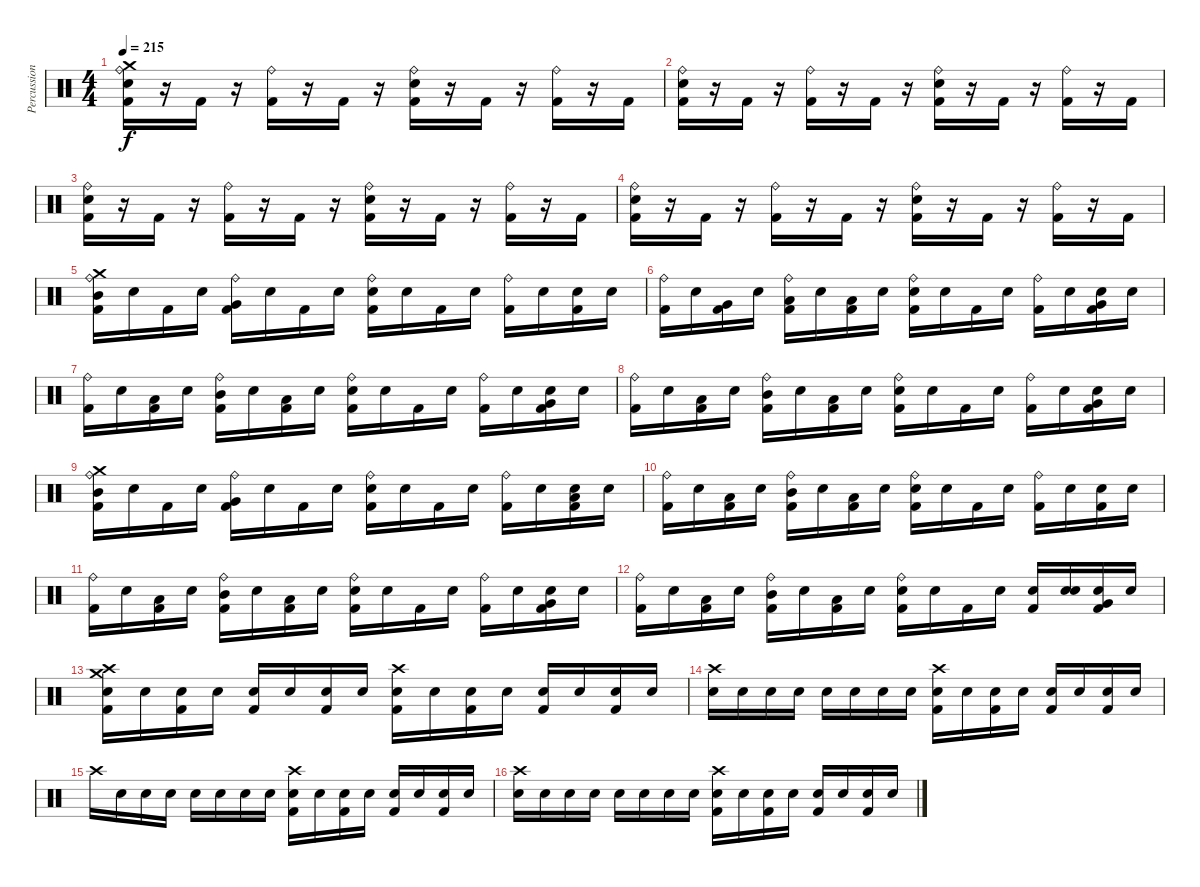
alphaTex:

\track ("Percussion" "Percussion") {instrument percussion}
\staff {score}
\articulation defaults
\ts (4 4)
\tempo 215
\clef neutral
\ks c
("Crash medium (hit)" "Ride (bell)" "Snare (hit) 2" "Kick (hit) 2").16{dy f} r.16 "Kick (hit) 2".16 r.16 ("Ride (bell)" "Kick (hit) 2").16 r.16 "Kick (hit) 2".16 r.16 ("Ride (bell)" "Snare (hit) 2" "Kick (hit) 2").16 r.16 "Kick (hit) 2".16 r.16 ("Ride (bell)" "Kick (hit) 2").16 r.16 "Kick (hit) 2".16 |
("Ride (bell)" "Snare (hit) 2" "Kick (hit) 2").16 r.16 "Kick (hit) 2".16 r.16 ("Ride (bell)" "Kick (hit) 2").16 r.16 "Kick (hit) 2".16 r.16 ("Ride (bell)" "Snare (hit) 2" "Kick (hit) 2").16 r.16 "Kick (hit) 2".16 r.16 ("Ride (bell)" "Kick (hit) 2").16 r.16 "Kick (hit) 2".16 |
("Ride (bell)" "Snare (hit) 2" "Kick (hit) 2").16 r.16 "Kick (hit) 2".16 r.16 ("Ride (bell)" "Kick (hit) 2").16 r.16 "Kick (hit) 2".16 r.16 ("Ride (bell)" "Snare (hit) 2" "Kick (hit) 2").16 r.16 "Kick (hit) 2".16 r.16 ("Ride (bell)" "Kick (hit) 2").16 r.16 "Kick (hit) 2".16 |
("Ride (bell)" "Snare (hit) 2" "Kick (hit) 2").16 r.16 "Kick (hit) 2".16 r.16 ("Ride (bell)" "Kick (hit) 2").16 r.16 "Kick (hit) 2".16 r.16 ("Ride (bell)" "Snare (hit) 2" "Kick (hit) 2").16 r.16 "Kick (hit) 2".16 r.16 ("Ride (bell)" "Kick (hit) 2").16 r.16 "Kick (hit) 2".16 |
("Crash medium (hit)" "Mid Tom (hit)" "Ride (bell)" "Kick (hit) 2").16 "Snare (hit)".16 "Kick (hit) 2".16 "Snare (hit)".16 ("Very Low Tom (hit)" "Ride (bell)" "Kick (hit) 2").16 "Snare (hit)".16 "Kick (hit) 2".16 "Snare (hit)".16 ("Ride (bell)" "Snare (hit) 2" "Kick (hit) 2").16 "Snare (hit)".16 "Kick (hit) 2".16 "Snare (hit)".16 ("Ride (bell)" "Kick (hit) 2").16 "Snare (hit)".16 ("Snare (hit) 2" "Kick (hit) 2").16 "Snare (hit)".16 |
("Ride (bell)" "Kick (hit) 2").16 "Snare (hit)".16 ("Very Low Tom (hit)" "Kick (hit) 2").16 "Snare (hit)".16 ("Low Tom (hit)" "Ride (bell)" "Kick (hit) 2").16 "Snare (hit)".16 ("Low Floor Tom (hit)" "Kick (hit) 2").16 "Snare (hit)".16 ("Ride (bell)" "Snare (hit) 2" "Kick (hit) 2").16 "Snare (hit)".16 "Kick (hit) 2".16 "Snare (hit)".16 ("Ride (bell)" "Kick (hit) 2").16 "Snare (hit)".16 ("Very Low Tom (hit)" "Snare (hit) 2" "Kick (hit) 2").16 "Snare (hit)".16 |
("Ride (bell)" "Kick (hit) 2").16 "Snare (hit)".16 ("Low Tom (hit)" "Kick (hit) 2").16 "Snare (hit)".16 ("Ride (bell)" "Mid Tom (hit)" "Kick (hit) 2").16 "Snare (hit)".16 ("Low Floor Tom (hit)" "Kick (hit) 2").16 "Snare (hit)".16 ("Ride (bell)" "Snare (hit) 2" "Kick (hit) 2").16 "Snare (hit)".16 "Kick (hit) 2".16 "Snare (hit)".16 ("Ride (bell)" "Kick (hit) 2").16 "Snare (hit)".16 ("Snare (hit) 2" "Very Low Tom (hit)" "Kick (hit) 2").16 "Snare (hit)".16 |
("Ride (bell)" "Kick (hit) 2").16 "Snare (hit)".16 ("Low Tom (hit)" "Kick (hit) 2").16 "Snare (hit)".16 ("Ride (bell)" "Mid Tom (hit)" "Kick (hit) 2").16 "Snare (hit)".16 ("Low Floor Tom (hit)" "Kick (hit) 2").16 "Snare (hit)".16 ("Ride (bell)" "Snare (hit) 2" "Kick (hit) 2").16 "Snare (hit)".16 "Kick (hit) 2".16 "Snare (hit)".16 ("Ride (bell)" "Kick (hit) 2").16 "Snare (hit)".16 ("Snare (hit) 2" "Very Low Tom (hit)" "Kick (hit) 2").16 "Snare (hit)".16 |
("Crash medium (hit)" "Mid Tom (hit)" "Ride (bell)" "Kick (hit) 2").16 "Snare (hit)".16 "Kick (hit) 2".16 "Snare (hit)".16 ("Very Low Tom (hit)" "Ride (bell)" "Kick (hit) 2").16 "Snare (hit)".16 "Kick (hit) 2".16 "Snare (hit)".16 ("Ride (bell)" "Snare (hit) 2" "Kick (hit) 2").16 "Snare (hit)".16 "Kick (hit) 2".16 "Snare (hit)".16 ("Ride (bell)" "Kick (hit) 2").16 "Snare (hit)".16 ("Low Tom (hit)" "Snare (hit) 2" "Kick (hit) 2").16 "Snare (hit)".16 |
("Ride (bell)" "Kick (hit) 2").16 "Snare (hit)".16 ("Low Tom (hit)" "Kick (hit) 2").16 "Snare (hit)".16 ("Mid Tom (hit)" "Ride (bell)" "Kick (hit) 2").16 "Snare (hit)".16 ("Low Floor Tom (hit)" "Kick (hit) 2").16 "Snare (hit)".16 ("Ride (bell)" "Snare (hit) 2" "Kick (hit) 2").16 "Snare (hit)".16 "Kick (hit) 2".16 "Snare (hit)".16 ("Ride (bell)" "Kick (hit) 2").16 "Snare (hit)".16 ("Snare (hit) 2" "Kick (hit) 2").16 "Snare (hit)".16 |
("Ride (bell)" "Kick (hit) 2").16 "Snare (hit)".16 ("Low Tom (hit)" "Kick (hit) 2").16 "Snare (hit)".16 ("Mid Tom (hit)" "Ride (bell)" "Kick (hit) 2").16 "Snare (hit)".16 ("Low Floor Tom (hit)" "Kick (hit) 2").16 "Snare (hit)".16 ("Ride (bell)" "Snare (hit) 2" "Kick (hit) 2").16 "Snare (hit)".16 "Kick (hit) 2".16 "Snare (hit)".16 ("Ride (bell)" "Kick (hit) 2").16 "Snare (hit)".16 ("Very Low Tom (hit)" "Snare (hit) 2" "Kick (hit) 2").16 "Snare (hit)".16 |
("Ride (bell)" "Kick (hit) 2").16 "Snare (hit)".16 ("Low Tom (hit)" "Kick (hit) 2").16 "Snare (hit)".16 ("Ride (bell)" "Mid Tom (hit)" "Kick (hit) 2").16 "Snare (hit)".16 ("Low Floor Tom (hit)" "Kick (hit) 2").16 "Snare (hit)".16 ("Ride (bell)" "Snare (hit) 2" "Kick (hit) 2").16 "Snare (hit)".16 "Kick (hit) 2".16 "Snare (hit)".16 ("Snare (hit) 2" "Kick (hit) 2").16 ("Snare (hit) 2" "Snare (hit)").16 ("Very Low Tom (hit)" "Snare (hit) 2" "Kick (hit) 2").16 "Snare (hit)".16 |
("Crash medium (hit)" "Crash high (hit)" "Kick (hit) 2" "Snare (hit)").16 "Snare (hit)".16 ("Kick (hit) 2" "Snare (hit)").16 "Snare (hit)".16 ("Kick (hit) 2" "Snare (hit)").16 "Snare (hit)".16 ("Kick (hit) 2" "Snare (hit)").16 "Snare (hit)".16 ("Crash high (hit)" "Kick (hit) 2" "Snare (hit)").16 "Snare (hit)".16 ("Kick (hit) 2" "Snare (hit)").16 "Snare (hit)".16 ("Kick (hit) 2" "Snare (hit)").16 "Snare (hit)".16 ("Kick (hit) 2" "Snare (hit)").16 "Snare (hit)".16 |
("Crash high (hit)" "Snare (hit) 2").16 "Snare (hit)".16 "Snare (hit)".16 "Snare (hit)".16 "Snare (hit)".16 "Snare (hit)".16 "Snare (hit)".16 "Snare (hit)".16 ("Crash high (hit)" "Kick (hit) 2" "Snare (hit)").16 "Snare (hit)".16 ("Kick (hit) 2" "Snare (hit)").16 "Snare (hit)".16 ("Kick (hit) 2" "Snare (hit)").16 "Snare (hit)".16 ("Kick (hit) 2" "Snare (hit)").16 "Snare (hit)".16 |
"Crash high (hit)".16 "Snare (hit)".16 "Snare (hit)".16 "Snare (hit)".16 "Snare (hit)".16 "Snare (hit)".16 "Snare (hit)".16 "Snare (hit)".16 ("Crash high (hit)" "Kick (hit) 2" "Snare (hit)").16 "Snare (hit)".16 ("Kick (hit) 2" "Snare (hit)").16 "Snare (hit)".16 ("Kick (hit) 2" "Snare (hit)").16 "Snare (hit)".16 ("Kick (hit) 2" "Snare (hit)").16 "Snare (hit)".16 |
("Crash high (hit)" "Snare (hit) 2").16 "Snare (hit)".16 "Snare (hit)".16 "Snare (hit)".16 "Snare (hit)".16 "Snare (hit)".16 "Snare (hit)".16 "Snare (hit)".16 ("Crash high (hit)" "Kick (hit) 2" "Snare (hit)").16 "Snare (hit)".16 ("Kick (hit) 2" "Snare (hit)").16 "Snare (hit)".16 ("Kick (hit) 2" "Snare (hit)").16 "Snare (hit)".16 ("Kick (hit) 2" "Snare (hit)").16 "Snare (hit)".16
